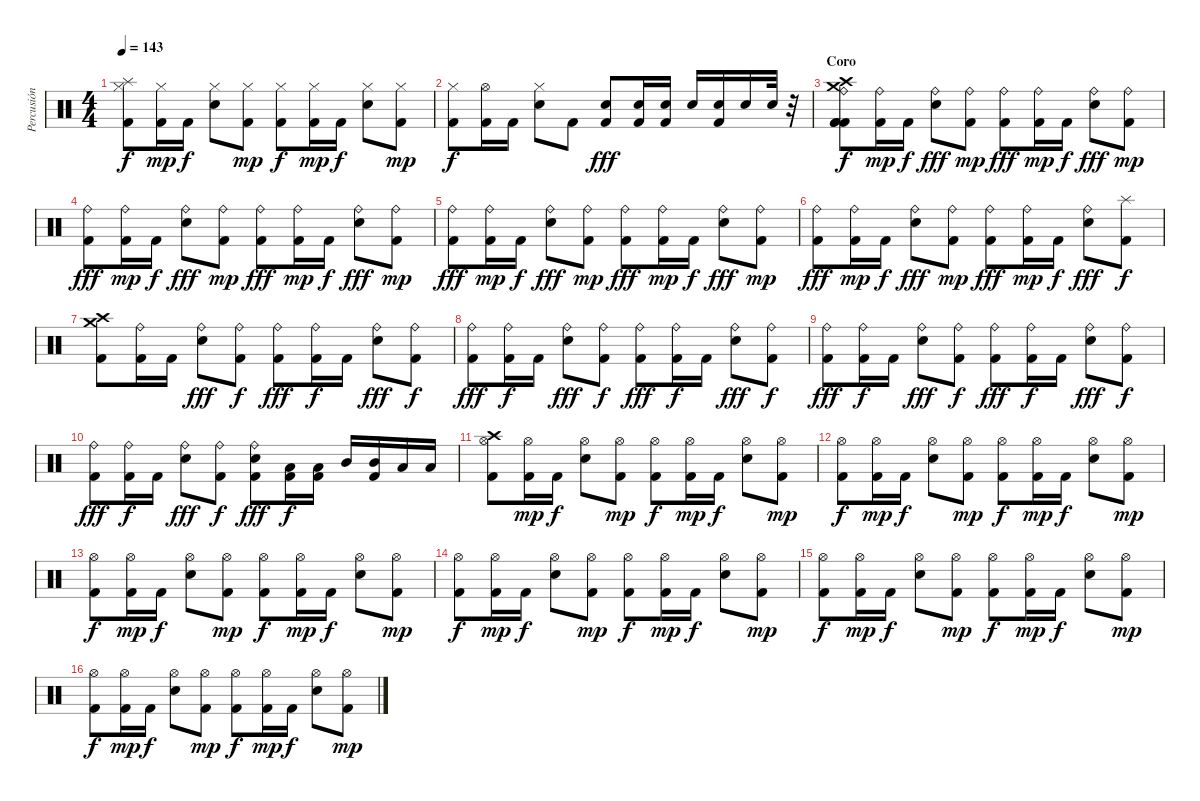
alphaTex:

\track ("Percusión" "Percusión") {instrument percussion}
\staff {score}
\articulation defaults
\ts (4 4)
\tempo 143
\clef neutral
\ks c
("Splash (hit)" "Hi-Hat (closed)" "Kick (hit) 2").8{dy f} ("Hi-Hat (closed)" "Kick (hit) 2").16{dy mp} "Kick (hit) 2".16{dy f} ("Hi-Hat (closed)" "Electric Snare (hit)").8 ("Hi-Hat (closed)" "Kick (hit) 2").8{dy mp} ("Hi-Hat (closed)" "Kick (hit) 2").8{dy f} ("Hi-Hat (closed)" "Kick (hit) 2").16{dy mp} "Kick (hit) 2".16{dy f} ("Hi-Hat (closed)" "Electric Snare (hit)").8 ("Hi-Hat (closed)" "Kick (hit) 2").8{dy mp} |
("Hi-Hat (closed)" "Kick (hit) 2").8{dy f} ("Hi-Hat (open)" "Kick (hit) 2").16 "Kick (hit) 2".16 ("Hi-Hat (closed)" "Electric Snare (hit)").8 "Kick (hit) 2".8 ("Electric Snare (hit)" "Kick (hit) 2").8{dy fff} ("Electric Snare (hit)" "Kick (hit) 2").16 ("Electric Snare (hit)" "Kick (hit) 2").16 "Electric Snare (hit)".16 ("Electric Snare (hit)" "Kick (hit) 2").16 "Electric Snare (hit)".16 "Electric Snare (hit)".32 r.32 |
\section ("" "Coro")
("Crash high (hit)" "Crash medium (hit)" "Ride (bell)" "Kick (hit) 2" "Kick (hit) 2" "Kick (hit) 2").8{dy f} ("Ride (bell)" "Kick (hit) 2").16{dy mp} "Kick (hit) 2".16{dy f} ("Ride (bell)" "Electric Snare (hit)").8{dy fff} ("Ride (bell)" "Kick (hit) 2").8{dy mp} ("Ride (bell)" "Kick (hit) 2").8{dy fff} ("Ride (bell)" "Kick (hit) 2").16{dy mp} "Kick (hit) 2".16{dy f} ("Ride (bell)" "Electric Snare (hit)").8{dy fff} ("Ride (bell)" "Kick (hit) 2").8{dy mp} |
("Ride (bell)" "Kick (hit) 2").8{dy fff} ("Ride (bell)" "Kick (hit) 2").16{dy mp} "Kick (hit) 2".16{dy f} ("Ride (bell)" "Electric Snare (hit)").8{dy fff} ("Ride (bell)" "Kick (hit) 2").8{dy mp} ("Ride (bell)" "Kick (hit) 2").8{dy fff} ("Ride (bell)" "Kick (hit) 2").16{dy mp} "Kick (hit) 2".16{dy f} ("Ride (bell)" "Electric Snare (hit)").8{dy fff} ("Ride (bell)" "Kick (hit) 2").8{dy mp} |
("Ride (bell)" "Kick (hit) 2").8{dy fff} ("Ride (bell)" "Kick (hit) 2").16{dy mp} "Kick (hit) 2".16{dy f} ("Ride (bell)" "Electric Snare (hit)").8{dy fff} ("Ride (bell)" "Kick (hit) 2").8{dy mp} ("Ride (bell)" "Kick (hit) 2").8{dy fff} ("Ride (bell)" "Kick (hit) 2").16{dy mp} "Kick (hit) 2".16{dy f} ("Ride (bell)" "Electric Snare (hit)").8{dy fff} ("Ride (bell)" "Kick (hit) 2").8{dy mp} |
("Ride (bell)" "Kick (hit) 2").8{dy fff} ("Ride (bell)" "Kick (hit) 2").16{dy mp} "Kick (hit) 2".16{dy f} ("Ride (bell)" "Electric Snare (hit)").8{dy fff} ("Ride (bell)" "Kick (hit) 2").8{dy mp} ("Ride (bell)" "Kick (hit) 2").8{dy fff} ("Ride (bell)" "Kick (hit) 2").16{dy mp} "Kick (hit) 2".16{dy f} ("Ride (bell)" "Electric Snare (hit)").8{dy fff} ("Splash (hit)" "Kick (hit) 2").8{dy f} |
("Crash high (hit)" "Crash medium (hit)" "Kick (hit) 2").8 ("Ride (bell)" "Kick (hit) 2").16 "Kick (hit) 2".16 ("Ride (bell)" "Electric Snare (hit)").8{dy fff} ("Ride (bell)" "Kick (hit) 2").8{dy f} ("Ride (bell)" "Kick (hit) 2").8{dy fff} ("Ride (bell)" "Kick (hit) 2").16{dy f} "Kick (hit) 2".16 ("Ride (bell)" "Electric Snare (hit)").8{dy fff} ("Ride (bell)" "Kick (hit) 2").8{dy f} |
("Ride (bell)" "Kick (hit) 2").8{dy fff} ("Ride (bell)" "Kick (hit) 2").16{dy f} "Kick (hit) 2".16 ("Ride (bell)" "Electric Snare (hit)").8{dy fff} ("Ride (bell)" "Kick (hit) 2").8{dy f} ("Ride (bell)" "Kick (hit) 2").8{dy fff} ("Ride (bell)" "Kick (hit) 2").16{dy f} "Kick (hit) 2".16 ("Ride (bell)" "Electric Snare (hit)").8{dy fff} ("Ride (bell)" "Kick (hit) 2").8{dy f} |
("Ride (bell)" "Kick (hit) 2").8{dy fff} ("Ride (bell)" "Kick (hit) 2").16{dy f} "Kick (hit) 2".16 ("Ride (bell)" "Electric Snare (hit)").8{dy fff} ("Ride (bell)" "Kick (hit) 2").8{dy f} ("Ride (bell)" "Kick (hit) 2").8{dy fff} ("Ride (bell)" "Kick (hit) 2").16{dy f} "Kick (hit) 2".16 ("Ride (bell)" "Electric Snare (hit)").8{dy fff} ("Ride (bell)" "Kick (hit) 2").8{dy f} |
("Ride (bell)" "Kick (hit) 2").8{dy fff} ("Ride (bell)" "Kick (hit) 2").16{dy f} "Kick (hit) 2".16 ("Ride (bell)" "Electric Snare (hit)").8{dy fff} ("Ride (bell)" "Kick (hit) 2").8{dy f} ("Ride (bell)" "Electric Snare (hit)" "Kick (hit) 2").8{dy fff} ("Low Tom (hit)" "Kick (hit) 2").16{dy f} ("Low Tom (hit)" "Kick (hit) 2").16 "Mid Tom (hit)".16 ("Mid Tom (hit)" "Kick (hit) 2").16 "Low Tom (hit)".16 "Low Tom (hit)".16 |
("Crash high (hit)" "Hi-Hat (open)" "Kick (hit) 2").8 ("Hi-Hat (open)" "Kick (hit) 2").16{dy mp} "Kick (hit) 2".16{dy f} ("Hi-Hat (open)" "Electric Snare (hit)").8 ("Hi-Hat (open)" "Kick (hit) 2").8{dy mp} ("Hi-Hat (open)" "Kick (hit) 2").8{dy f} ("Hi-Hat (open)" "Kick (hit) 2").16{dy mp} "Kick (hit) 2".16{dy f} ("Hi-Hat (open)" "Electric Snare (hit)").8 ("Hi-Hat (open)" "Kick (hit) 2").8{dy mp} |
("Hi-Hat (open)" "Kick (hit) 2").8{dy f} ("Hi-Hat (open)" "Kick (hit) 2").16{dy mp} "Kick (hit) 2".16{dy f} ("Hi-Hat (open)" "Electric Snare (hit)").8 ("Hi-Hat (open)" "Kick (hit) 2").8{dy mp} ("Hi-Hat (open)" "Kick (hit) 2").8{dy f} ("Hi-Hat (open)" "Kick (hit) 2").16{dy mp} "Kick (hit) 2".16{dy f} ("Hi-Hat (open)" "Electric Snare (hit)").8 ("Hi-Hat (open)" "Kick (hit) 2").8{dy mp} |
("Hi-Hat (open)" "Kick (hit) 2").8{dy f} ("Hi-Hat (open)" "Kick (hit) 2").16{dy mp} "Kick (hit) 2".16{dy f} ("Hi-Hat (open)" "Electric Snare (hit)").8 ("Hi-Hat (open)" "Kick (hit) 2").8{dy mp} ("Hi-Hat (open)" "Kick (hit) 2").8{dy f} ("Hi-Hat (open)" "Kick (hit) 2").16{dy mp} "Kick (hit) 2".16{dy f} ("Hi-Hat (open)" "Electric Snare (hit)").8 ("Hi-Hat (open)" "Kick (hit) 2").8{dy mp} |
("Hi-Hat (open)" "Kick (hit) 2").8{dy f} ("Hi-Hat (open)" "Kick (hit) 2").16{dy mp} "Kick (hit) 2".16{dy f} ("Hi-Hat (open)" "Electric Snare (hit)").8 ("Hi-Hat (open)" "Kick (hit) 2").8{dy mp} ("Hi-Hat (open)" "Kick (hit) 2").8{dy f} ("Hi-Hat (open)" "Kick (hit) 2").16{dy mp} "Kick (hit) 2".16{dy f} ("Hi-Hat (open)" "Electric Snare (hit)").8 ("Hi-Hat (open)" "Kick (hit) 2").8{dy mp} |
("Hi-Hat (open)" "Kick (hit) 2").8{dy f} ("Hi-Hat (open)" "Kick (hit) 2").16{dy mp} "Kick (hit) 2".16{dy f} ("Hi-Hat (open)" "Electric Snare (hit)").8 ("Hi-Hat (open)" "Kick (hit) 2").8{dy mp} ("Hi-Hat (open)" "Kick (hit) 2").8{dy f} ("Hi-Hat (open)" "Kick (hit) 2").16{dy mp} "Kick (hit) 2".16{dy f} ("Hi-Hat (open)" "Electric Snare (hit)").8 ("Hi-Hat (open)" "Kick (hit) 2").8{dy mp} |
("Hi-Hat (open)" "Kick (hit) 2").8{dy f} ("Hi-Hat (open)" "Kick (hit) 2").16{dy mp} "Kick (hit) 2".16{dy f} ("Hi-Hat (open)" "Electric Snare (hit)").8 ("Hi-Hat (open)" "Kick (hit) 2").8{dy mp} ("Hi-Hat (open)" "Kick (hit) 2").8{dy f} ("Hi-Hat (open)" "Kick (hit) 2").16{dy mp} "Kick (hit) 2".16{dy f} ("Hi-Hat (open)" "Electric Snare (hit)").8 ("Hi-Hat (open)" "Kick (hit) 2").8{dy mp}
